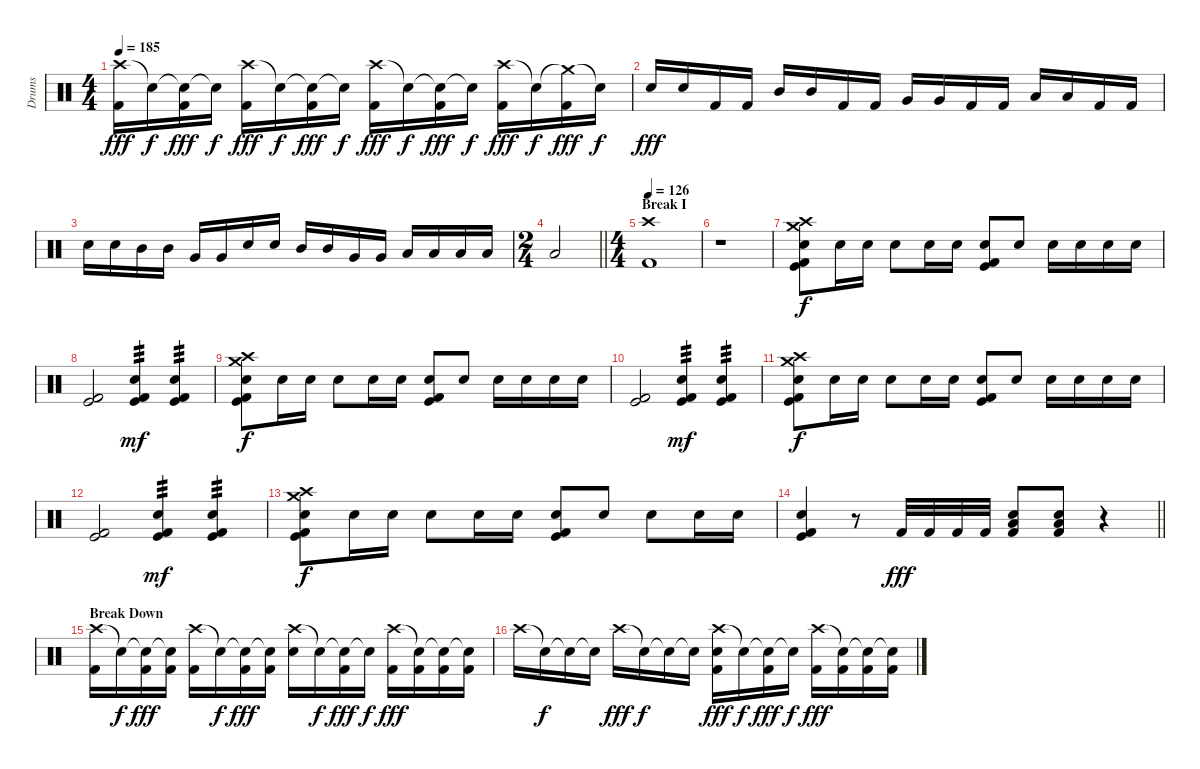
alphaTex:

\track ("Drums" "Drums") {instrument percussion}
\staff {score}
\articulation defaults
\ts (4 4)
\tempo 185
\clef neutral
\ks c
("Crash high (hit)" "Kick (hit) 2").16{dy fff} "Snare (hit)"{t}.16{dy f} ("Snare (hit)"{t} "Kick (hit) 2").16{dy fff} "Snare (hit)"{t}.16{dy f} ("Crash high (hit)" "Kick (hit) 2").16{dy fff} "Snare (hit)"{t}.16{dy f} ("Snare (hit)"{t} "Kick (hit) 2").16{dy fff} "Snare (hit)"{t}.16{dy f} ("Crash high (hit)" "Kick (hit) 2").16{dy fff} "Snare (hit)"{t}.16{dy f} ("Snare (hit)"{t} "Kick (hit) 2").16{dy fff} "Snare (hit)"{t}.16{dy f} ("Crash high (hit)" "Kick (hit) 2").16{dy fff} "Snare (hit)"{t}.16{dy f} ("Crash medium (hit)"{t} "Kick (hit) 2").16{dy fff} "Snare (hit)"{t}.16{dy f} |
"Electric Snare (hit)".16{dy fff} "Electric Snare (hit)".16 "Kick (hit) 2".16 "Kick (hit) 2".16 "Mid Tom (hit)".16 "Mid Tom (hit)".16 "Kick (hit) 2".16 "Kick (hit) 2".16 "Very Low Tom (hit)".16 "Very Low Tom (hit)".16 "Kick (hit) 2".16 "Kick (hit) 2".16 "Low Floor Tom (hit)".16 "Low Floor Tom (hit)".16 "Kick (hit) 2".16 "Kick (hit) 2".16 |
"Electric Snare (hit)".16 "Electric Snare (hit)".16 "Mid Tom (hit)".16 "Mid Tom (hit)".16 "Very Low Tom (hit)".16 "Very Low Tom (hit)".16 "Electric Snare (hit)".16 "Electric Snare (hit)".16 "Mid Tom (hit)".16 "Mid Tom (hit)".16 "Very Low Tom (hit)".16 "Very Low Tom (hit)".16 "Low Floor Tom (hit)".16 "Low Floor Tom (hit)".16 "Low Floor Tom (hit)".16 "Low Floor Tom (hit)".16 |
\ts (2 4)
\barLineRight lightlight "Low Floor Tom (hit)".2
|
\ts (4 4)
\section ("" "Break I")
\tempo 126
("Crash high (hit)" "Kick (hit) 2").1 |
r.1 |
("Crash medium (hit)" "Crash high (hit)" "Electric Snare (hit)" "Kick (hit) 2" "Kick (hit)").8{dy f volume 11} "Electric Snare (hit)".16 "Electric Snare (hit)".16 "Electric Snare (hit)".8 "Electric Snare (hit)".16 "Electric Snare (hit)".16 ("Electric Snare (hit)" "Kick (hit) 2" "Kick (hit)").8 "Electric Snare (hit)".8 "Electric Snare (hit)".16 "Electric Snare (hit)".16 "Electric Snare (hit)".16 "Electric Snare (hit)".16 |
("Kick (hit) 2" "Kick (hit)").2 ("Electric Snare (hit)" "Kick (hit) 2" "Kick (hit)").4{tp 3 dy mf} ("Electric Snare (hit)" "Kick (hit) 2" "Kick (hit)").4{tp 3} |
("Crash medium (hit)" "Crash high (hit)" "Electric Snare (hit)" "Kick (hit) 2" "Kick (hit)").8{dy f} "Electric Snare (hit)".16 "Electric Snare (hit)".16 "Electric Snare (hit)".8 "Electric Snare (hit)".16 "Electric Snare (hit)".16 ("Electric Snare (hit)" "Kick (hit) 2" "Kick (hit)").8 "Electric Snare (hit)".8 "Electric Snare (hit)".16 "Electric Snare (hit)".16 "Electric Snare (hit)".16 "Electric Snare (hit)".16 |
("Kick (hit) 2" "Kick (hit)").2 ("Electric Snare (hit)" "Kick (hit) 2" "Kick (hit)").4{tp 3 dy mf} ("Electric Snare (hit)" "Kick (hit) 2" "Kick (hit)").4{tp 3} |
("Crash medium (hit)" "Crash high (hit)" "Electric Snare (hit)" "Kick (hit) 2" "Kick (hit)").8{dy f} "Electric Snare (hit)".16 "Electric Snare (hit)".16 "Electric Snare (hit)".8 "Electric Snare (hit)".16 "Electric Snare (hit)".16 ("Electric Snare (hit)" "Kick (hit) 2" "Kick (hit)").8 "Electric Snare (hit)".8 "Electric Snare (hit)".16 "Electric Snare (hit)".16 "Electric Snare (hit)".16 "Electric Snare (hit)".16 |
("Kick (hit) 2" "Kick (hit)").2 ("Electric Snare (hit)" "Kick (hit) 2" "Kick (hit)").4{tp 3 dy mf} ("Electric Snare (hit)" "Kick (hit) 2" "Kick (hit)").4{tp 3} |
("Crash medium (hit)" "Crash high (hit)" "Electric Snare (hit)" "Kick (hit) 2" "Kick (hit)").8{dy f} "Electric Snare (hit)".16 "Electric Snare (hit)".16 "Electric Snare (hit)".8 "Electric Snare (hit)".16 "Electric Snare (hit)".16 ("Electric Snare (hit)" "Kick (hit) 2" "Kick (hit)").8 "Electric Snare (hit)".8 "Electric Snare (hit)".8 "Electric Snare (hit)".16 "Electric Snare (hit)".16 |
\barLineRight lightlight
("Electric Snare (hit)" "Kick (hit) 2" "Kick (hit)").4 r.8 "Kick (hit) 2".32{dy fff volume 14} "Kick (hit) 2".32 "Kick (hit) 2".32 "Kick (hit) 2".32 ("Low Floor Tom (hit)" "Electric Snare (hit)" "Kick (hit) 2").8 ("Low Floor Tom (hit)" "Electric Snare (hit)" "Kick (hit) 2").8 r.4 |
\section ("" "Break Down")
("Crash high (hit)" "Kick (hit) 2").16 "Snare (hit)"{t}.16{dy f} ("Snare (hit)"{t} "Kick (hit) 2").16{dy fff} ("Snare (hit)"{t} "Kick (hit) 2").16 ("Crash high (hit)" "Kick (hit) 2").16 "Snare (hit)"{t}.16{dy f} ("Snare (hit)"{t} "Kick (hit) 2").16{dy fff} ("Snare (hit)"{t} "Kick (hit) 2").16 ("Crash high (hit)" "Electric Snare (hit)").16 "Snare (hit)"{t}.16{dy f} ("Snare (hit)"{t} "Kick (hit) 2").16{dy fff} "Snare (hit)"{t}.16{dy f} ("Crash high (hit)" "Kick (hit) 2").16{dy fff} ("Snare (hit)"{t} "Kick (hit) 2").16 ("Snare (hit)"{t} "Kick (hit) 2").16 ("Snare (hit)"{t} "Kick (hit) 2").16 |
"Crash high (hit)".16 "Snare (hit)"{t}.16{dy f} "Snare (hit)"{t}.16 "Snare (hit)"{t}.16 "Crash high (hit)".16{dy fff} "Snare (hit)"{t}.16{dy f} "Snare (hit)"{t}.16 "Snare (hit)"{t}.16 ("Crash high (hit)" "Electric Snare (hit)" "Kick (hit) 2").16{dy fff} "Snare (hit)"{t}.16{dy f} ("Snare (hit)"{t} "Kick (hit) 2").16{dy fff} "Snare (hit)"{t}.16{dy f} ("Crash high (hit)" "Kick (hit) 2").16{dy fff} ("Snare (hit)"{t} "Kick (hit) 2").16 ("Snare (hit)"{t} "Kick (hit) 2").16 ("Snare (hit)"{t} "Kick (hit) 2").16
